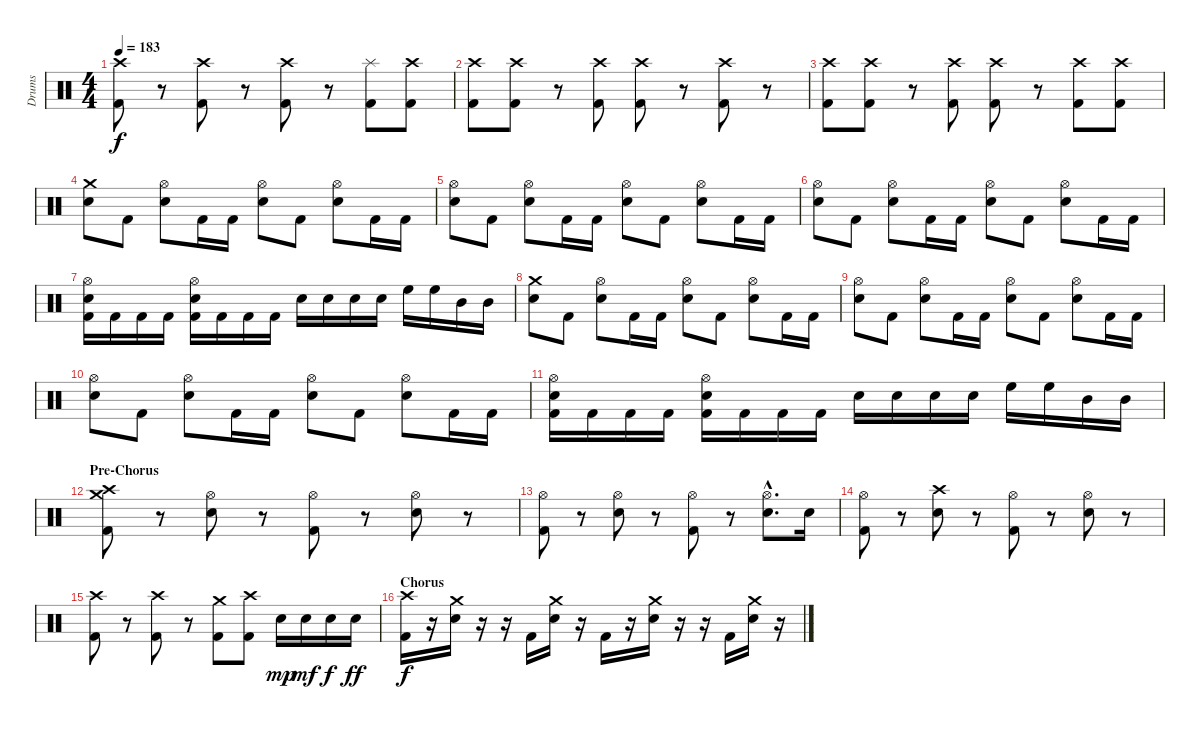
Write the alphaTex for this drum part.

\track ("Drums" "Drums") {instrument percussion}
\staff {score}
\articulation defaults
\ts (4 4)
\tempo 183
\clef neutral
\ks c
("Crash high (hit)" "Kick (hit) 2").8{dy f} r.8{volume 0} ("Crash high (hit)" "Kick (hit) 2").8{volume 16} r.8{volume 0} ("Crash high (hit)" "Kick (hit) 2").8{volume 16} r.8{volume 0} ("Splash (hit)" "Kick (hit) 2").8{volume 16} ("Crash high (hit)" "Kick (hit) 2").8 |
("Crash high (hit)" "Kick (hit) 2").8 ("Crash high (hit)" "Kick (hit) 2").8 r.8{volume 0} ("Crash high (hit)" "Kick (hit) 2").8{volume 16} ("Crash high (hit)" "Kick (hit) 2").8 r.8{volume 0} ("Crash high (hit)" "Kick (hit) 2").8{volume 16} r.8{volume 0} |
("Crash high (hit)" "Kick (hit) 2").8{volume 16} ("Crash high (hit)" "Kick (hit) 2").8 r.8{volume 0} ("Crash high (hit)" "Kick (hit) 2").8{volume 16} ("Crash high (hit)" "Kick (hit) 2").8 r.8{volume 0} ("Crash high (hit)" "Kick (hit) 2").8{volume 16} ("Crash high (hit)" "Kick (hit) 2").8 |
("Crash medium (hit)" "Electric Snare (hit)").8 "Kick (hit) 2".8 ("Hi-Hat (open)" "Electric Snare (hit)").8 "Kick (hit) 2".16 "Kick (hit) 2".16 ("Hi-Hat (open)" "Electric Snare (hit)").8 "Kick (hit) 2".8 ("Hi-Hat (open)" "Electric Snare (hit)").8 "Kick (hit) 2".16 "Kick (hit) 2".16 |
("Hi-Hat (open)" "Electric Snare (hit)").8 "Kick (hit) 2".8 ("Hi-Hat (open)" "Electric Snare (hit)").8 "Kick (hit) 2".16 "Kick (hit) 2".16 ("Hi-Hat (open)" "Electric Snare (hit)").8 "Kick (hit) 2".8 ("Hi-Hat (open)" "Electric Snare (hit)").8 "Kick (hit) 2".16 "Kick (hit) 2".16 |
("Hi-Hat (open)" "Electric Snare (hit)").8 "Kick (hit) 2".8 ("Hi-Hat (open)" "Electric Snare (hit)").8 "Kick (hit) 2".16 "Kick (hit) 2".16 ("Hi-Hat (open)" "Electric Snare (hit)").8 "Kick (hit) 2".8 ("Hi-Hat (open)" "Electric Snare (hit)").8 "Kick (hit) 2".16 "Kick (hit) 2".16 |
("Hi-Hat (open)" "Electric Snare (hit)" "Kick (hit) 2").16 "Kick (hit) 2".16 "Kick (hit) 2".16 "Kick (hit) 2".16 ("Hi-Hat (open)" "Electric Snare (hit)" "Kick (hit) 2").16 "Kick (hit) 2".16 "Kick (hit) 2".16 "Kick (hit) 2".16 "Electric Snare (hit)".16 "Electric Snare (hit)".16 "Electric Snare (hit)".16 "Electric Snare (hit)".16 "High Floor Tom (hit)".16 "High Floor Tom (hit)".16 "Mid Tom (hit)".16 "Mid Tom (hit)".16 |
("Crash medium (hit)" "Electric Snare (hit)").8 "Kick (hit) 2".8 ("Hi-Hat (open)" "Electric Snare (hit)").8 "Kick (hit) 2".16 "Kick (hit) 2".16 ("Hi-Hat (open)" "Electric Snare (hit)").8 "Kick (hit) 2".8 ("Hi-Hat (open)" "Electric Snare (hit)").8 "Kick (hit) 2".16 "Kick (hit) 2".16 |
("Hi-Hat (open)" "Electric Snare (hit)").8 "Kick (hit) 2".8 ("Hi-Hat (open)" "Electric Snare (hit)").8 "Kick (hit) 2".16 "Kick (hit) 2".16 ("Hi-Hat (open)" "Electric Snare (hit)").8 "Kick (hit) 2".8 ("Hi-Hat (open)" "Electric Snare (hit)").8 "Kick (hit) 2".16 "Kick (hit) 2".16 |
("Hi-Hat (open)" "Electric Snare (hit)").8 "Kick (hit) 2".8 ("Hi-Hat (open)" "Electric Snare (hit)").8 "Kick (hit) 2".16 "Kick (hit) 2".16 ("Hi-Hat (open)" "Electric Snare (hit)").8 "Kick (hit) 2".8 ("Hi-Hat (open)" "Electric Snare (hit)").8 "Kick (hit) 2".16 "Kick (hit) 2".16 |
("Hi-Hat (open)" "Electric Snare (hit)" "Kick (hit) 2").16 "Kick (hit) 2".16 "Kick (hit) 2".16 "Kick (hit) 2".16 ("Hi-Hat (open)" "Electric Snare (hit)" "Kick (hit) 2").16 "Kick (hit) 2".16 "Kick (hit) 2".16 "Kick (hit) 2".16 "Electric Snare (hit)".16 "Electric Snare (hit)".16 "Electric Snare (hit)".16 "Electric Snare (hit)".16 "High Floor Tom (hit)".16 "High Floor Tom (hit)".16 "Mid Tom (hit)".16 "Mid Tom (hit)".16 |
\section ("" "Pre-Chorus")
("Crash high (hit)" "Crash medium (hit)" "Kick (hit) 2").8 r.8 ("Hi-Hat (open)" "Electric Snare (hit)").8 r.8 ("Hi-Hat (open)" "Kick (hit) 2").8 r.8 ("Hi-Hat (open)" "Electric Snare (hit)").8 r.8 |
("Hi-Hat (open)" "Kick (hit) 2").8 r.8 ("Hi-Hat (open)" "Electric Snare (hit)").8 r.8 ("Hi-Hat (open)" "Kick (hit) 2").8 r.8 ("Hi-Hat (open)"{hac} "Electric Snare (hit)"{hac}).8{d} "Electric Snare (hit)".16 |
("Hi-Hat (open)" "Kick (hit) 2").8 r.8 ("Crash high (hit)" "Electric Snare (hit)").8 r.8 ("Hi-Hat (open)" "Kick (hit) 2").8 r.8 ("Hi-Hat (open)" "Electric Snare (hit)").8 r.8 |
("Crash high (hit)" "Kick (hit) 2").8{volume 16} r.8{volume 0} ("Crash high (hit)" "Kick (hit) 2").8{volume 16} r.8{volume 0} ("Crash medium (hit)" "Kick (hit) 2").8{volume 16} ("Crash high (hit)" "Kick (hit) 2").8 "Electric Snare (hit)".16{dy mp} "Electric Snare (hit)".16{dy mf} "Electric Snare (hit)".16{dy f} "Electric Snare (hit)".16{dy ff} |
\section ("" "Chorus")
("Crash high (hit)" "Kick (hit) 2").16{dy f} r.16 ("Crash medium (hit)" "Electric Snare (hit)").16 r.16 r.16 "Kick (hit) 2".16 ("Crash medium (hit)" "Electric Snare (hit)").16 r.16 "Kick (hit) 2".16 r.16 ("Crash medium (hit)" "Electric Snare (hit)").16 r.16 r.16 "Kick (hit) 2".16 ("Crash medium (hit)" "Electric Snare (hit)").16 r.16
